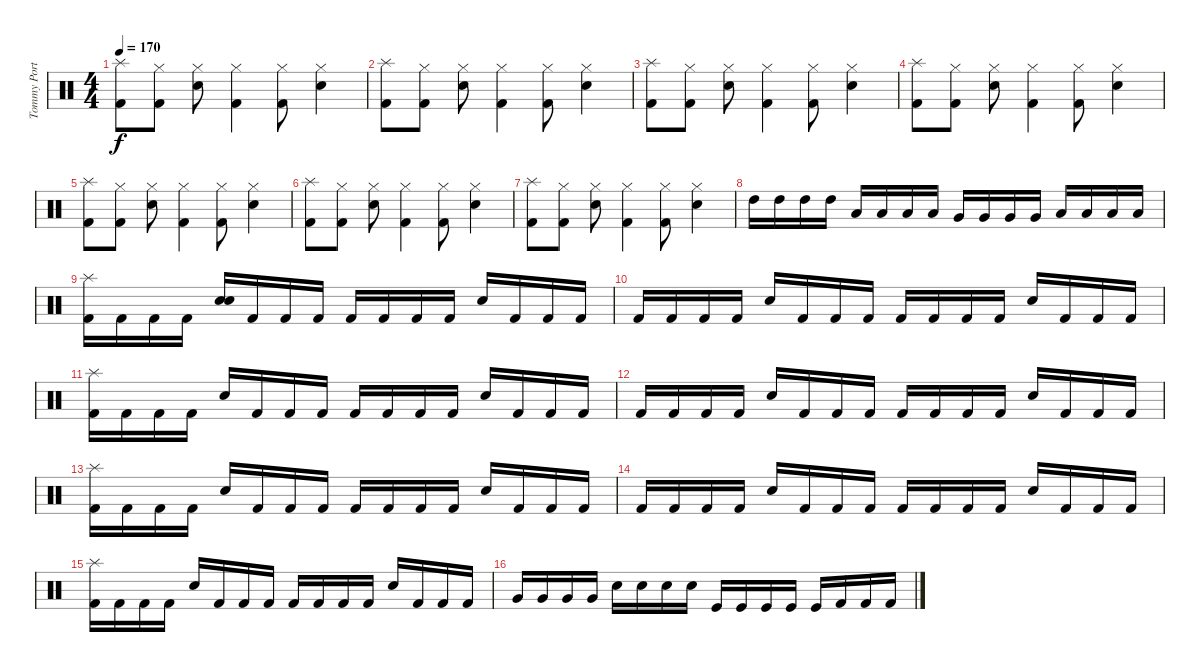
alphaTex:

\track ("Tommy Portimo" "Tommy Port") {instrument percussion}
\staff {score}
\articulation defaults
\ts (4 4)
\tempo 170
\clef neutral
\ks c
("Splash (hit)" "Kick (hit) 2").8{dy f} ("Kick (hit) 2" "Hi-Hat (closed)").8 ("Electric Snare (hit)" "Hi-Hat (closed)").8 ("Kick (hit) 2" "Hi-Hat (closed)").4 ("Kick (hit) 2" "Hi-Hat (closed)").8 ("Electric Snare (hit)" "Hi-Hat (closed)").4 |
("Splash (hit)" "Kick (hit) 2").8 ("Kick (hit) 2" "Hi-Hat (closed)").8 ("Electric Snare (hit)" "Hi-Hat (closed)").8 ("Kick (hit) 2" "Hi-Hat (closed)").4 ("Kick (hit) 2" "Hi-Hat (closed)").8 ("Electric Snare (hit)" "Hi-Hat (closed)").4 |
("Splash (hit)" "Kick (hit) 2").8 ("Kick (hit) 2" "Hi-Hat (closed)").8 ("Electric Snare (hit)" "Hi-Hat (closed)").8 ("Kick (hit) 2" "Hi-Hat (closed)").4 ("Kick (hit) 2" "Hi-Hat (closed)").8 ("Electric Snare (hit)" "Hi-Hat (closed)").4 |
("Splash (hit)" "Kick (hit) 2").8 ("Kick (hit) 2" "Hi-Hat (closed)").8 ("Electric Snare (hit)" "Hi-Hat (closed)").8 ("Kick (hit) 2" "Hi-Hat (closed)").4 ("Kick (hit) 2" "Hi-Hat (closed)").8 ("Electric Snare (hit)" "Hi-Hat (closed)").4 |
("Splash (hit)" "Kick (hit) 2").8 ("Kick (hit) 2" "Hi-Hat (closed)").8 ("Electric Snare (hit)" "Hi-Hat (closed)").8 ("Kick (hit) 2" "Hi-Hat (closed)").4 ("Kick (hit) 2" "Hi-Hat (closed)").8 ("Electric Snare (hit)" "Hi-Hat (closed)").4 |
("Splash (hit)" "Kick (hit) 2").8 ("Kick (hit) 2" "Hi-Hat (closed)").8 ("Electric Snare (hit)" "Hi-Hat (closed)").8 ("Kick (hit) 2" "Hi-Hat (closed)").4 ("Kick (hit) 2" "Hi-Hat (closed)").8 ("Electric Snare (hit)" "Hi-Hat (closed)").4 |
("Splash (hit)" "Kick (hit) 2").8 ("Kick (hit) 2" "Hi-Hat (closed)").8 ("Electric Snare (hit)" "Hi-Hat (closed)").8 ("Kick (hit) 2" "Hi-Hat (closed)").4 ("Kick (hit) 2" "Hi-Hat (closed)").8 ("Electric Snare (hit)" "Hi-Hat (closed)").4 |
"High Tom (hit)".16 "High Tom (hit)".16 "High Tom (hit)".16 "High Tom (hit)".16 "Low Floor Tom (hit)".16 "Low Floor Tom (hit)".16 "Low Floor Tom (hit)".16 "Low Floor Tom (hit)".16 "Very Low Tom (hit)".16 "Very Low Tom (hit)".16 "Very Low Tom (hit)".16 "Very Low Tom (hit)".16 "Low Tom (hit)".16 "Low Tom (hit)".16 "Low Tom (hit)".16 "Low Tom (hit)".16 |
("Splash (hit)" "Kick (hit) 2").16 "Kick (hit) 2".16 "Kick (hit) 2".16 "Kick (hit) 2".16 ("Electric Snare (hit)" "Electric Snare (hit)").16 "Kick (hit) 2".16 "Kick (hit) 2".16 "Kick (hit) 2".16 "Kick (hit) 2".16 "Kick (hit) 2".16 "Kick (hit) 2".16 "Kick (hit) 2".16 "Electric Snare (hit)".16 "Kick (hit) 2".16 "Kick (hit) 2".16 "Kick (hit) 2".16 |
"Kick (hit) 2".16 "Kick (hit) 2".16 "Kick (hit) 2".16 "Kick (hit) 2".16 "Electric Snare (hit)".16 "Kick (hit) 2".16 "Kick (hit) 2".16 "Kick (hit) 2".16 "Kick (hit) 2".16 "Kick (hit) 2".16 "Kick (hit) 2".16 "Kick (hit) 2".16 "Electric Snare (hit)".16 "Kick (hit) 2".16 "Kick (hit) 2".16 "Kick (hit) 2".16 |
("Splash (hit)" "Kick (hit) 2").16 "Kick (hit) 2".16 "Kick (hit) 2".16 "Kick (hit) 2".16 "Electric Snare (hit)".16 "Kick (hit) 2".16 "Kick (hit) 2".16 "Kick (hit) 2".16 "Kick (hit) 2".16 "Kick (hit) 2".16 "Kick (hit) 2".16 "Kick (hit) 2".16 "Electric Snare (hit)".16 "Kick (hit) 2".16 "Kick (hit) 2".16 "Kick (hit) 2".16 |
"Kick (hit) 2".16 "Kick (hit) 2".16 "Kick (hit) 2".16 "Kick (hit) 2".16 "Electric Snare (hit)".16 "Kick (hit) 2".16 "Kick (hit) 2".16 "Kick (hit) 2".16 "Kick (hit) 2".16 "Kick (hit) 2".16 "Kick (hit) 2".16 "Kick (hit) 2".16 "Electric Snare (hit)".16 "Kick (hit) 2".16 "Kick (hit) 2".16 "Kick (hit) 2".16 |
("Splash (hit)" "Kick (hit) 2").16 "Kick (hit) 2".16 "Kick (hit) 2".16 "Kick (hit) 2".16 "Electric Snare (hit)".16 "Kick (hit) 2".16 "Kick (hit) 2".16 "Kick (hit) 2".16 "Kick (hit) 2".16 "Kick (hit) 2".16 "Kick (hit) 2".16 "Kick (hit) 2".16 "Electric Snare (hit)".16 "Kick (hit) 2".16 "Kick (hit) 2".16 "Kick (hit) 2".16 |
"Kick (hit) 2".16 "Kick (hit) 2".16 "Kick (hit) 2".16 "Kick (hit) 2".16 "Electric Snare (hit)".16 "Kick (hit) 2".16 "Kick (hit) 2".16 "Kick (hit) 2".16 "Kick (hit) 2".16 "Kick (hit) 2".16 "Kick (hit) 2".16 "Kick (hit) 2".16 "Electric Snare (hit)".16 "Kick (hit) 2".16 "Kick (hit) 2".16 "Kick (hit) 2".16 |
("Splash (hit)" "Kick (hit) 2").16 "Kick (hit) 2".16 "Kick (hit) 2".16 "Kick (hit) 2".16 "Electric Snare (hit)".16 "Kick (hit) 2".16 "Kick (hit) 2".16 "Kick (hit) 2".16 "Kick (hit) 2".16 "Kick (hit) 2".16 "Kick (hit) 2".16 "Kick (hit) 2".16 "Electric Snare (hit)".16 "Kick (hit) 2".16 "Kick (hit) 2".16 "Kick (hit) 2".16 |
"Very Low Tom (hit)".16 "Very Low Tom (hit)".16 "Very Low Tom (hit)".16 "Very Low Tom (hit)".16 "Electric Snare (hit)".16 "Electric Snare (hit)".16 "Electric Snare (hit)".16 "Electric Snare (hit)".16 "Kick (hit)".16 "Kick (hit)".16 "Kick (hit)".16 "Kick (hit)".16 "Kick (hit)".16 "Kick (hit) 2".16 "Kick (hit) 2".16 "Kick (hit) 2".16
